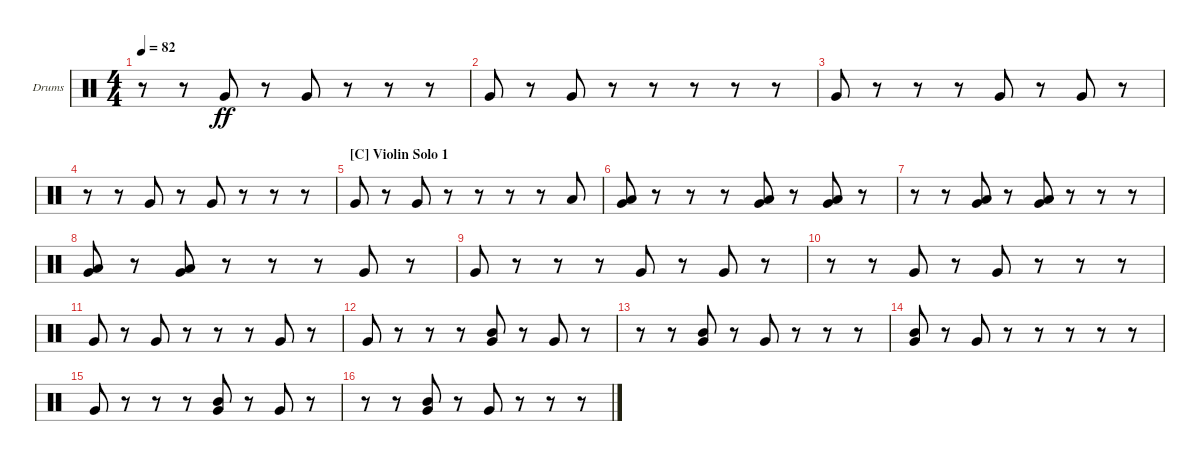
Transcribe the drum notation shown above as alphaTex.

\defaultSystemsLayout 4
\bracketExtendMode groupsimilarinstruments
\firstSystemTrackNameOrientation horizontal
\otherSystemsTrackNameOrientation horizontal
\track ("Drumkit" "Drums") {instrument percussion}
\staff {score}
\articulation defaults
\ts (4 4)
\tempo 82
\clef neutral
\scale
0.333333
\ks c
r.8{dy ff} r.8 "Very Low Tom (hit)".8 r.8 "Very Low Tom (hit)".8 r.8 r.8 r.8 |
\scale
0.333333 "Very Low Tom (hit)".8 r.8 "Very Low Tom (hit)".8 r.8 r.8 r.8 r.8 r.8 |
\scale
0.333333 "Very Low Tom (hit)".8 r.8 r.8 r.8 "Very Low Tom (hit)".8 r.8 "Very Low Tom (hit)".8 r.8 |
\scale
0.333333 r.8 r.8 "Very Low Tom (hit)".8 r.8 "Very Low Tom (hit)".8 r.8 r.8 r.8 |
\section ("C" "Violin Solo 1")
\scale
0.333333 "Very Low Tom (hit)".8 r.8 "Very Low Tom (hit)".8 r.8 r.8 r.8 r.8 "Low Tom (hit)".8 |
\scale
0.333333 ("Low Tom (hit)" "Very Low Tom (hit)").8 r.8 r.8 r.8 ("Low Tom (hit)" "Very Low Tom (hit)").8 r.8 ("Low Tom (hit)" "Very Low Tom (hit)").8 r.8 |
\scale
0.333333 r.8 r.8 ("Low Tom (hit)" "Very Low Tom (hit)").8 r.8 ("Low Tom (hit)" "Very Low Tom (hit)").8 r.8 r.8 r.8 |
\scale
0.333333 ("Low Tom (hit)" "Very Low Tom (hit)").8 r.8 ("Low Tom (hit)" "Very Low Tom (hit)").8 r.8 r.8 r.8 "Very Low Tom (hit)".8 r.8 |
\scale
0.333333 "Very Low Tom (hit)".8 r.8 r.8 r.8 "Very Low Tom (hit)".8 r.8 "Very Low Tom (hit)".8 r.8 |
\scale
0.333333 r.8 r.8 "Very Low Tom (hit)".8 r.8 "Very Low Tom (hit)".8 r.8 r.8 r.8 |
\scale
0.333333 "Very Low Tom (hit)".8 r.8 "Very Low Tom (hit)".8 r.8 r.8 r.8 "Very Low Tom (hit)".8 r.8 |
\scale
0.333333 "Very Low Tom (hit)".8 r.8 r.8 r.8 ("Very Low Tom (hit)" "Mid Tom (hit)").8 r.8 "Very Low Tom (hit)".8 r.8 |
\scale
0.333333 r.8 r.8 ("Mid Tom (hit)" "Very Low Tom (hit)").8 r.8 "Very Low Tom (hit)".8 r.8 r.8 r.8 |
\scale
0.333333 ("Very Low Tom (hit)" "Mid Tom (hit)").8 r.8 "Very Low Tom (hit)".8 r.8 r.8 r.8 r.8 r.8 |
\scale
0.333333 "Very Low Tom (hit)".8 r.8 r.8 r.8 ("Very Low Tom (hit)" "Mid Tom (hit)").8 r.8 "Very Low Tom (hit)".8 r.8 |
\scale
0.333333 r.8 r.8 ("Very Low Tom (hit)" "Mid Tom (hit)").8 r.8 "Very Low Tom (hit)".8 r.8 r.8 r.8
